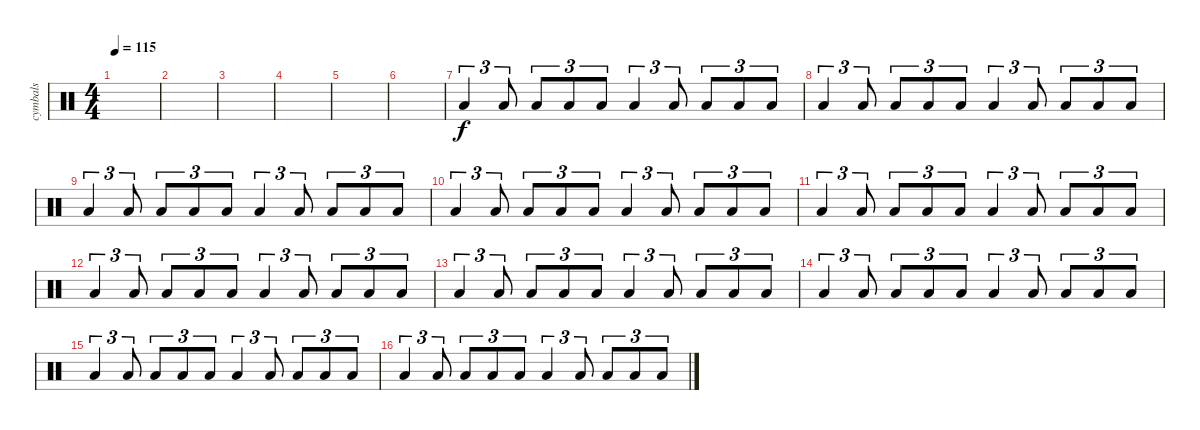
\track ("cymbals" "cymbals") {instrument percussion}
\staff {score}
\articulation defaults
\ts (4 4)
\tempo 115
\clef neutral
\ks c
|
|
|
|
|
|
"Low Floor Tom (hit)".4{tu (3 2) dy f} "Low Floor Tom (hit)".8{tu (3 2)} "Low Floor Tom (hit)".8{tu (3 2)} "Low Floor Tom (hit)".8{tu (3 2)} "Low Floor Tom (hit)".8{tu (3 2)} "Low Floor Tom (hit)".4{tu (3 2)} "Low Floor Tom (hit)".8{tu (3 2)} "Low Floor Tom (hit)".8{tu (3 2)} "Low Floor Tom (hit)".8{tu (3 2)} "Low Floor Tom (hit)".8{tu (3 2)} |
"Low Floor Tom (hit)".4{tu (3 2)} "Low Floor Tom (hit)".8{tu (3 2)} "Low Floor Tom (hit)".8{tu (3 2)} "Low Floor Tom (hit)".8{tu (3 2)} "Low Floor Tom (hit)".8{tu (3 2)} "Low Floor Tom (hit)".4{tu (3 2)} "Low Floor Tom (hit)".8{tu (3 2)} "Low Floor Tom (hit)".8{tu (3 2)} "Low Floor Tom (hit)".8{tu (3 2)} "Low Floor Tom (hit)".8{tu (3 2)} |
"Low Floor Tom (hit)".4{tu (3 2)} "Low Floor Tom (hit)".8{tu (3 2)} "Low Floor Tom (hit)".8{tu (3 2)} "Low Floor Tom (hit)".8{tu (3 2)} "Low Floor Tom (hit)".8{tu (3 2)} "Low Floor Tom (hit)".4{tu (3 2)} "Low Floor Tom (hit)".8{tu (3 2)} "Low Floor Tom (hit)".8{tu (3 2)} "Low Floor Tom (hit)".8{tu (3 2)} "Low Floor Tom (hit)".8{tu (3 2)} |
"Low Floor Tom (hit)".4{tu (3 2)} "Low Floor Tom (hit)".8{tu (3 2)} "Low Floor Tom (hit)".8{tu (3 2)} "Low Floor Tom (hit)".8{tu (3 2)} "Low Floor Tom (hit)".8{tu (3 2)} "Low Floor Tom (hit)".4{tu (3 2)} "Low Floor Tom (hit)".8{tu (3 2)} "Low Floor Tom (hit)".8{tu (3 2)} "Low Floor Tom (hit)".8{tu (3 2)} "Low Floor Tom (hit)".8{tu (3 2)} |
"Low Floor Tom (hit)".4{tu (3 2)} "Low Floor Tom (hit)".8{tu (3 2)} "Low Floor Tom (hit)".8{tu (3 2)} "Low Floor Tom (hit)".8{tu (3 2)} "Low Floor Tom (hit)".8{tu (3 2)} "Low Floor Tom (hit)".4{tu (3 2)} "Low Floor Tom (hit)".8{tu (3 2)} "Low Floor Tom (hit)".8{tu (3 2)} "Low Floor Tom (hit)".8{tu (3 2)} "Low Floor Tom (hit)".8{tu (3 2)} |
"Low Floor Tom (hit)".4{tu (3 2)} "Low Floor Tom (hit)".8{tu (3 2)} "Low Floor Tom (hit)".8{tu (3 2)} "Low Floor Tom (hit)".8{tu (3 2)} "Low Floor Tom (hit)".8{tu (3 2)} "Low Floor Tom (hit)".4{tu (3 2)} "Low Floor Tom (hit)".8{tu (3 2)} "Low Floor Tom (hit)".8{tu (3 2)} "Low Floor Tom (hit)".8{tu (3 2)} "Low Floor Tom (hit)".8{tu (3 2)} |
"Low Floor Tom (hit)".4{tu (3 2)} "Low Floor Tom (hit)".8{tu (3 2)} "Low Floor Tom (hit)".8{tu (3 2)} "Low Floor Tom (hit)".8{tu (3 2)} "Low Floor Tom (hit)".8{tu (3 2)} "Low Floor Tom (hit)".4{tu (3 2)} "Low Floor Tom (hit)".8{tu (3 2)} "Low Floor Tom (hit)".8{tu (3 2)} "Low Floor Tom (hit)".8{tu (3 2)} "Low Floor Tom (hit)".8{tu (3 2)} |
"Low Floor Tom (hit)".4{tu (3 2)} "Low Floor Tom (hit)".8{tu (3 2)} "Low Floor Tom (hit)".8{tu (3 2)} "Low Floor Tom (hit)".8{tu (3 2)} "Low Floor Tom (hit)".8{tu (3 2)} "Low Floor Tom (hit)".4{tu (3 2)} "Low Floor Tom (hit)".8{tu (3 2)} "Low Floor Tom (hit)".8{tu (3 2)} "Low Floor Tom (hit)".8{tu (3 2)} "Low Floor Tom (hit)".8{tu (3 2)} |
"Low Floor Tom (hit)".4{tu (3 2)} "Low Floor Tom (hit)".8{tu (3 2)} "Low Floor Tom (hit)".8{tu (3 2)} "Low Floor Tom (hit)".8{tu (3 2)} "Low Floor Tom (hit)".8{tu (3 2)} "Low Floor Tom (hit)".4{tu (3 2)} "Low Floor Tom (hit)".8{tu (3 2)} "Low Floor Tom (hit)".8{tu (3 2)} "Low Floor Tom (hit)".8{tu (3 2)} "Low Floor Tom (hit)".8{tu (3 2)} |
"Low Floor Tom (hit)".4{tu (3 2)} "Low Floor Tom (hit)".8{tu (3 2)} "Low Floor Tom (hit)".8{tu (3 2)} "Low Floor Tom (hit)".8{tu (3 2)} "Low Floor Tom (hit)".8{tu (3 2)} "Low Floor Tom (hit)".4{tu (3 2)} "Low Floor Tom (hit)".8{tu (3 2)} "Low Floor Tom (hit)".8{tu (3 2)} "Low Floor Tom (hit)".8{tu (3 2)} "Low Floor Tom (hit)".8{tu (3 2)}
